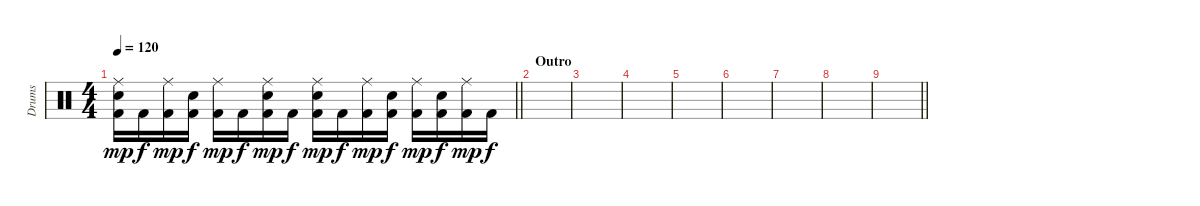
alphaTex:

\track ("Drums" "Drums") {instrument percussion}
\staff {score}
\articulation defaults
\ts (4 4)
\tempo 120
\clef neutral
\barLineRight lightlight
\ks c
("Kick (hit) 2" "Ride (middle)" "Snare (hit) 2").16{dy mp} "Kick (hit) 2".16{dy f} ("Kick (hit) 2" "Ride (middle)").16{dy mp} ("Kick (hit) 2" "Snare (hit) 2").16{dy f} ("Kick (hit) 2" "Ride (middle)").16{dy mp} "Kick (hit) 2".16{dy f} ("Kick (hit) 2" "Ride (middle)" "Snare (hit) 2").16{dy mp} "Kick (hit) 2".16{dy f} ("Kick (hit) 2" "Ride (middle)" "Snare (hit) 2").16{dy mp} "Kick (hit) 2".16{dy f} ("Kick (hit) 2" "Ride (middle)").16{dy mp} ("Kick (hit) 2" "Snare (hit) 2").16{dy f} ("Kick (hit) 2" "Ride (middle)").16{dy mp} ("Kick (hit) 2" "Snare (hit) 2").16{dy f} ("Kick (hit) 2" "Ride (middle)").16{dy mp} "Kick (hit) 2".16{dy f} |
\section ("" "Outro")
|
|
|
|
|
|
|
\barLineRight lightlight
